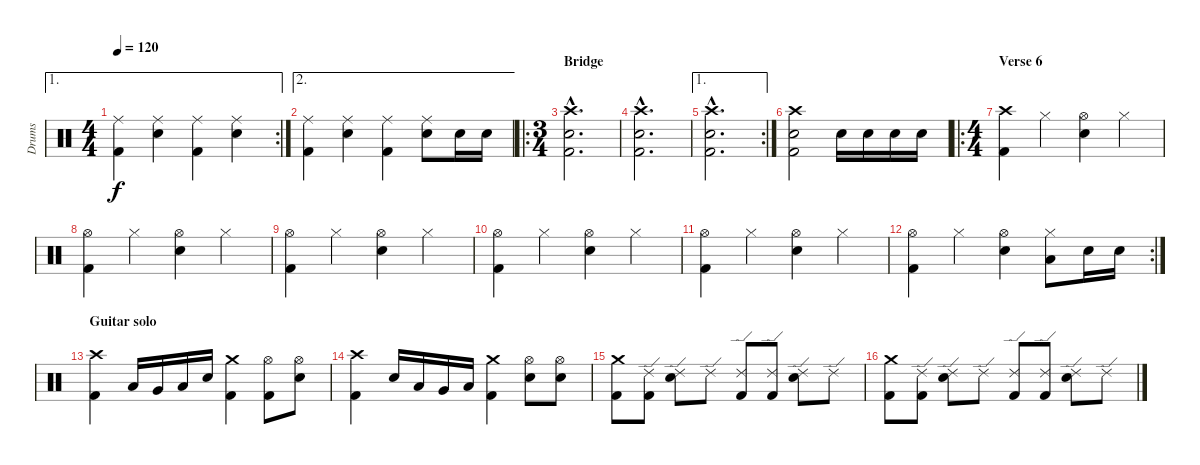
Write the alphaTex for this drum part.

\track ("Drums" "Drums") {instrument percussion}
\staff {score}
\articulation defaults
\ae 1
\rc 2
\ts (4 4)
\tempo 120
\clef neutral
\ks c
("Ride (middle)" "Kick (hit) 2").4{dy f} ("Ride (middle)" "Electric Snare (hit)").4 ("Ride (middle)" "Kick (hit) 2").4 ("Ride (middle)" "Electric Snare (hit)").4 |
\ae 2
("Ride (middle)" "Kick (hit) 2").4 ("Ride (middle)" "Electric Snare (hit)").4 ("Ride (middle)" "Kick (hit) 2").4 ("Ride (middle)" "Electric Snare (hit)").8 "Electric Snare (hit)".16 "Electric Snare (hit)".16 |
\ro
\ts (3 4)
\section ("" "Bridge")
("Crash high (hit)"{hac} "Kick (hit) 2"{hac} "Electric Snare (hit)"{hac}).2{d} |
("Crash high (hit)"{hac} "Kick (hit) 2"{hac} "Electric Snare (hit)"{hac}).2{d} |
\ae 1
\rc 2
("Crash high (hit)"{hac} "Kick (hit) 2"{hac} "Electric Snare (hit)"{hac}).2{d} |
("Crash high (hit)" "Kick (hit) 2" "Electric Snare (hit)").2 "Electric Snare (hit)".16 "Electric Snare (hit)".16 "Electric Snare (hit)".16 "Electric Snare (hit)".16 |
\ro
\ts (4 4)
\section ("" "Verse 6")
("Crash high (hit)" "Kick (hit) 2").4 "Hi-Hat (closed)".4 ("Hi-Hat (open)" "Electric Snare (hit)").4 "Hi-Hat (closed)".4 |
("Hi-Hat (open)" "Kick (hit) 2").4 "Hi-Hat (closed)".4 ("Hi-Hat (open)" "Electric Snare (hit)").4 "Hi-Hat (closed)".4 |
("Hi-Hat (open)" "Kick (hit) 2").4 "Hi-Hat (closed)".4 ("Hi-Hat (open)" "Electric Snare (hit)").4 "Hi-Hat (closed)".4 |
("Hi-Hat (open)" "Kick (hit) 2").4 "Hi-Hat (closed)".4 ("Hi-Hat (open)" "Electric Snare (hit)").4 "Hi-Hat (closed)".4 |
("Hi-Hat (open)" "Kick (hit) 2").4 "Hi-Hat (closed)".4 ("Hi-Hat (open)" "Electric Snare (hit)").4 "Hi-Hat (closed)".4 |
\rc 2
("Hi-Hat (open)" "Kick (hit) 2").4 "Hi-Hat (closed)".4 ("Hi-Hat (open)" "Electric Snare (hit)").4 ("Hi-Hat (closed)" "Low Floor Tom (hit)").8 "Electric Snare (hit)".16 "Electric Snare (hit)".16 |
\section ("" "Guitar solo")
("Crash high (hit)" "Kick (hit) 2").4 "Low Tom (hit)".16 "Very Low Tom (hit)".16 "Low Floor Tom (hit)".16 "Electric Snare (hit)".16 ("Crash medium (hit)" "Kick (hit) 2").4 ("Hi-Hat (open)" "Kick (hit) 2").8 ("Hi-Hat (open)" "Electric Snare (hit)").8 |
("Crash high (hit)" "Kick (hit) 2").4 "Electric Snare (hit)".16 "Low Floor Tom (hit)".16 "Very Low Tom (hit)".16 "Low Tom (hit)".16 ("Crash medium (hit)" "Kick (hit) 2").4 ("Hi-Hat (open)" "Electric Snare (hit)").8 ("Hi-Hat (open)" "Electric Snare (hit)").8 |
("Crash medium (hit)" "Kick (hit) 2").8 ("Ride (edge) 2" "Kick (hit) 2").8 ("Ride (edge) 2" "Electric Snare (hit)").8 "Ride (edge) 2".8 ("Ride (edge) 2" "Kick (hit) 2").8 ("Ride (edge) 2" "Kick (hit) 2").8 ("Ride (edge) 2" "Electric Snare (hit)").8 "Ride (edge) 2".8 |
("Crash medium (hit)" "Kick (hit) 2").8 ("Ride (edge) 2" "Kick (hit) 2").8 ("Ride (edge) 2" "Electric Snare (hit)").8 "Ride (edge) 2".8 ("Ride (edge) 2" "Kick (hit) 2").8 ("Ride (edge) 2" "Kick (hit) 2").8 ("Ride (edge) 2" "Electric Snare (hit)").8 "Ride (edge) 2".8
